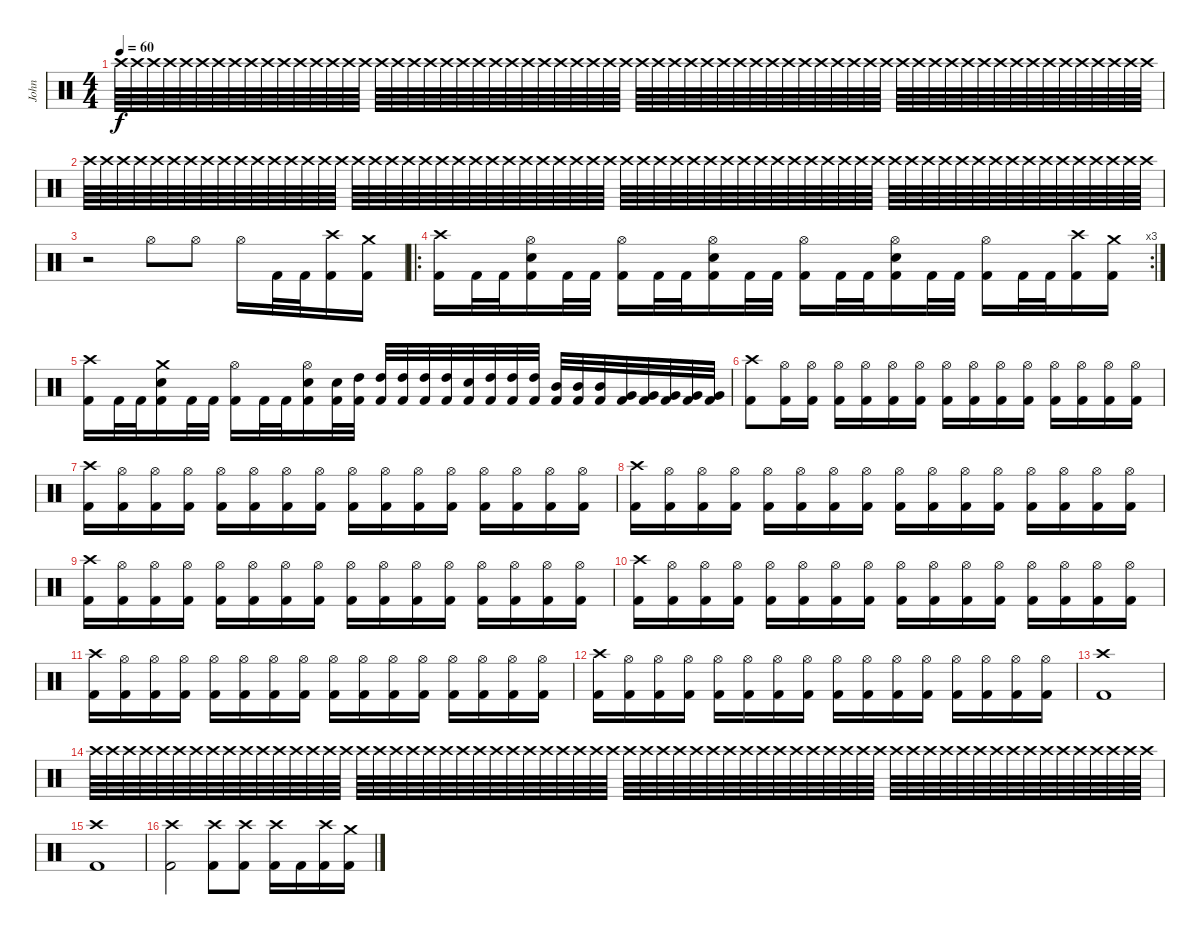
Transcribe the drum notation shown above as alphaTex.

\track ("John" "John") {instrument percussion}
\staff {score}
\articulation defaults
\ts (4 4)
\tempo 60
\clef neutral
\ks c "Crash high (hit)".64{dy f volume 0} "Crash high (hit)".64{volume 16} "Crash high (hit)".64 "Crash high (hit)".64 "Crash high (hit)".64 "Crash high (hit)".64 "Crash high (hit)".64 "Crash high (hit)".64 "Crash high (hit)".64 "Crash high (hit)".64 "Crash high (hit)".64 "Crash high (hit)".64 "Crash high (hit)".64 "Crash high (hit)".64 "Crash high (hit)".64 "Crash high (hit)".64 "Crash high (hit)".64 "Crash high (hit)".64 "Crash high (hit)".64 "Crash high (hit)".64 "Crash high (hit)".64 "Crash high (hit)".64 "Crash high (hit)".64 "Crash high (hit)".64 "Crash high (hit)".64 "Crash high (hit)".64 "Crash high (hit)".64 "Crash high (hit)".64 "Crash high (hit)".64 "Crash high (hit)".64 "Crash high (hit)".64 "Crash high (hit)".64 "Crash high (hit)".64 "Crash high (hit)".64 "Crash high (hit)".64 "Crash high (hit)".64 "Crash high (hit)".64 "Crash high (hit)".64 "Crash high (hit)".64 "Crash high (hit)".64 "Crash high (hit)".64 "Crash high (hit)".64 "Crash high (hit)".64 "Crash high (hit)".64 "Crash high (hit)".64 "Crash high (hit)".64 "Crash high (hit)".64 "Crash high (hit)".64 "Crash high (hit)".64 "Crash high (hit)".64 "Crash high (hit)".64 "Crash high (hit)".64 "Crash high (hit)".64 "Crash high (hit)".64 "Crash high (hit)".64 "Crash high (hit)".64 "Crash high (hit)".64 "Crash high (hit)".64 "Crash high (hit)".64 "Crash high (hit)".64 "Crash high (hit)".64 "Crash high (hit)".64 "Crash high (hit)".64 "Crash high (hit)".64
|
"Crash high (hit)".64 "Crash high (hit)".64 "Crash high (hit)".64 "Crash high (hit)".64 "Crash high (hit)".64 "Crash high (hit)".64 "Crash high (hit)".64 "Crash high (hit)".64 "Crash high (hit)".64 "Crash high (hit)".64 "Crash high (hit)".64 "Crash high (hit)".64 "Crash high (hit)".64 "Crash high (hit)".64 "Crash high (hit)".64 "Crash high (hit)".64 "Crash high (hit)".64 "Crash high (hit)".64 "Crash high (hit)".64 "Crash high (hit)".64 "Crash high (hit)".64 "Crash high (hit)".64 "Crash high (hit)".64 "Crash high (hit)".64 "Crash high (hit)".64 "Crash high (hit)".64 "Crash high (hit)".64 "Crash high (hit)".64 "Crash high (hit)".64 "Crash high (hit)".64 "Crash high (hit)".64 "Crash high (hit)".64 "Crash high (hit)".64 "Crash high (hit)".64 "Crash high (hit)".64 "Crash high (hit)".64 "Crash high (hit)".64 "Crash high (hit)".64 "Crash high (hit)".64 "Crash high (hit)".64 "Crash high (hit)".64 "Crash high (hit)".64 "Crash high (hit)".64 "Crash high (hit)".64 "Crash high (hit)".64 "Crash high (hit)".64 "Crash high (hit)".64 "Crash high (hit)".64 "Crash high (hit)".64 "Crash high (hit)".64 "Crash high (hit)".64 "Crash high (hit)".64 "Crash high (hit)".64 "Crash high (hit)".64 "Crash high (hit)".64 "Crash high (hit)".64 "Crash high (hit)".64 "Crash high (hit)".64 "Crash high (hit)".64 "Crash high (hit)".64 "Crash high (hit)".64 "Crash high (hit)".64 "Crash high (hit)".64 "Crash high (hit)".64 |
r.2 "Hi-Hat (open)".8 "Hi-Hat (open)".8 "Hi-Hat (open)".16 "Kick (hit) 2".32 "Kick (hit) 2".32 ("Crash high (hit)" "Kick (hit) 2").16 ("Crash medium (hit)" "Kick (hit) 2").16 |
\ro
\rc 3
("Crash high (hit)" "Kick (hit) 2").16 "Kick (hit) 2".32 "Kick (hit) 2".32 ("Hi-Hat (open)" "Snare (hit) 2" "Kick (hit) 2").16 "Kick (hit) 2".32 "Kick (hit) 2".32 ("Hi-Hat (open)" "Kick (hit) 2").16 "Kick (hit) 2".32 "Kick (hit) 2".32 ("Hi-Hat (open)" "Snare (hit) 2" "Kick (hit) 2").16 "Kick (hit) 2".32 "Kick (hit) 2".32 ("Hi-Hat (open)" "Kick (hit) 2").16 "Kick (hit) 2".32 "Kick (hit) 2".32 ("Hi-Hat (open)" "Snare (hit) 2" "Kick (hit) 2").16 "Kick (hit) 2".32 "Kick (hit) 2".32 ("Hi-Hat (open)" "Kick (hit) 2").16 "Kick (hit) 2".32 "Kick (hit) 2".32 ("Crash high (hit)" "Kick (hit) 2").16 ("Crash medium (hit)" "Kick (hit) 2").16 |
("Crash high (hit)" "Kick (hit) 2").16 "Kick (hit) 2".32 "Kick (hit) 2".32 ("Crash medium (hit)" "Snare (hit) 2" "Kick (hit) 2").16 "Kick (hit) 2".32 "Kick (hit) 2".32 ("Hi-Hat (open)" "Kick (hit) 2").16 "Kick (hit) 2".32 "Kick (hit) 2".32 ("Hi-Hat (open)" "Snare (hit) 2" "Kick (hit) 2").16 ("Snare (hit) 2" "Kick (hit) 2").32 ("High Tom (hit)" "Kick (hit) 2").32 ("High Tom (hit)" "Kick (hit) 2").32 ("High Tom (hit)" "Kick (hit) 2").32 ("High Tom (hit)" "Kick (hit) 2").32 ("High Tom (hit)" "Kick (hit) 2").32 ("Snare (hit) 2" "Kick (hit) 2").32 ("High Tom (hit)" "Kick (hit) 2").32 ("High Tom (hit)" "Kick (hit) 2").32 ("High Tom (hit)" "Kick (hit) 2").32 ("Mid Tom (hit)" "Kick (hit) 2").32 ("Mid Tom (hit)" "Kick (hit) 2").32 ("Mid Tom (hit)" "Kick (hit) 2").32 ("Very Low Tom (hit)" "Kick (hit) 2").32 ("Very Low Tom (hit)" "Kick (hit) 2").32 ("Very Low Tom (hit)" "Kick (hit) 2").32 ("Very Low Tom (hit)" "Kick (hit) 2").32 ("Very Low Tom (hit)" "Kick (hit) 2").32 |
("Crash high (hit)" "Kick (hit) 2").8 ("Hi-Hat (open)" "Kick (hit) 2").16 ("Hi-Hat (open)" "Kick (hit) 2").16 ("Hi-Hat (open)" "Kick (hit) 2").16 ("Hi-Hat (open)" "Kick (hit) 2").16 ("Hi-Hat (open)" "Kick (hit) 2").16 ("Hi-Hat (open)" "Kick (hit) 2").16 ("Hi-Hat (open)" "Kick (hit) 2").16 ("Hi-Hat (open)" "Kick (hit) 2").16 ("Hi-Hat (open)" "Kick (hit) 2").16 ("Hi-Hat (open)" "Kick (hit) 2").16 ("Hi-Hat (open)" "Kick (hit) 2").16 ("Hi-Hat (open)" "Kick (hit) 2").16 ("Hi-Hat (open)" "Kick (hit) 2").16 ("Hi-Hat (open)" "Kick (hit) 2").16 |
("Crash high (hit)" "Kick (hit) 2").16 ("Hi-Hat (open)" "Kick (hit) 2").16 ("Hi-Hat (open)" "Kick (hit) 2").16 ("Hi-Hat (open)" "Kick (hit) 2").16 ("Hi-Hat (open)" "Kick (hit) 2").16 ("Hi-Hat (open)" "Kick (hit) 2").16 ("Hi-Hat (open)" "Kick (hit) 2").16 ("Hi-Hat (open)" "Kick (hit) 2").16 ("Hi-Hat (open)" "Kick (hit) 2").16 ("Hi-Hat (open)" "Kick (hit) 2").16 ("Hi-Hat (open)" "Kick (hit) 2").16 ("Hi-Hat (open)" "Kick (hit) 2").16 ("Hi-Hat (open)" "Kick (hit) 2").16 ("Hi-Hat (open)" "Kick (hit) 2").16 ("Hi-Hat (open)" "Kick (hit) 2").16 ("Hi-Hat (open)" "Kick (hit) 2").16 |
("Crash high (hit)" "Kick (hit) 2").16 ("Hi-Hat (open)" "Kick (hit) 2").16 ("Hi-Hat (open)" "Kick (hit) 2").16 ("Hi-Hat (open)" "Kick (hit) 2").16 ("Hi-Hat (open)" "Kick (hit) 2").16 ("Hi-Hat (open)" "Kick (hit) 2").16 ("Hi-Hat (open)" "Kick (hit) 2").16 ("Hi-Hat (open)" "Kick (hit) 2").16 ("Hi-Hat (open)" "Kick (hit) 2").16 ("Hi-Hat (open)" "Kick (hit) 2").16 ("Hi-Hat (open)" "Kick (hit) 2").16 ("Hi-Hat (open)" "Kick (hit) 2").16 ("Hi-Hat (open)" "Kick (hit) 2").16 ("Hi-Hat (open)" "Kick (hit) 2").16 ("Hi-Hat (open)" "Kick (hit) 2").16 ("Hi-Hat (open)" "Kick (hit) 2").16 |
("Crash high (hit)" "Kick (hit) 2").16 ("Hi-Hat (open)" "Kick (hit) 2").16 ("Hi-Hat (open)" "Kick (hit) 2").16 ("Hi-Hat (open)" "Kick (hit) 2").16 ("Hi-Hat (open)" "Kick (hit) 2").16 ("Hi-Hat (open)" "Kick (hit) 2").16 ("Hi-Hat (open)" "Kick (hit) 2").16 ("Hi-Hat (open)" "Kick (hit) 2").16 ("Hi-Hat (open)" "Kick (hit) 2").16 ("Hi-Hat (open)" "Kick (hit) 2").16 ("Hi-Hat (open)" "Kick (hit) 2").16 ("Hi-Hat (open)" "Kick (hit) 2").16 ("Hi-Hat (open)" "Kick (hit) 2").16 ("Hi-Hat (open)" "Kick (hit) 2").16 ("Hi-Hat (open)" "Kick (hit) 2").16 ("Hi-Hat (open)" "Kick (hit) 2").16 |
("Crash high (hit)" "Kick (hit) 2").16 ("Hi-Hat (open)" "Kick (hit) 2").16 ("Hi-Hat (open)" "Kick (hit) 2").16 ("Hi-Hat (open)" "Kick (hit) 2").16 ("Hi-Hat (open)" "Kick (hit) 2").16 ("Hi-Hat (open)" "Kick (hit) 2").16 ("Hi-Hat (open)" "Kick (hit) 2").16 ("Hi-Hat (open)" "Kick (hit) 2").16 ("Hi-Hat (open)" "Kick (hit) 2").16 ("Hi-Hat (open)" "Kick (hit) 2").16 ("Hi-Hat (open)" "Kick (hit) 2").16 ("Hi-Hat (open)" "Kick (hit) 2").16 ("Hi-Hat (open)" "Kick (hit) 2").16 ("Hi-Hat (open)" "Kick (hit) 2").16 ("Hi-Hat (open)" "Kick (hit) 2").16 ("Hi-Hat (open)" "Kick (hit) 2").16 |
("Crash high (hit)" "Kick (hit) 2").16 ("Hi-Hat (open)" "Kick (hit) 2").16 ("Hi-Hat (open)" "Kick (hit) 2").16 ("Hi-Hat (open)" "Kick (hit) 2").16 ("Hi-Hat (open)" "Kick (hit) 2").16 ("Hi-Hat (open)" "Kick (hit) 2").16 ("Hi-Hat (open)" "Kick (hit) 2").16 ("Hi-Hat (open)" "Kick (hit) 2").16 ("Hi-Hat (open)" "Kick (hit) 2").16 ("Hi-Hat (open)" "Kick (hit) 2").16 ("Hi-Hat (open)" "Kick (hit) 2").16 ("Hi-Hat (open)" "Kick (hit) 2").16 ("Hi-Hat (open)" "Kick (hit) 2").16 ("Hi-Hat (open)" "Kick (hit) 2").16 ("Hi-Hat (open)" "Kick (hit) 2").16 ("Hi-Hat (open)" "Kick (hit) 2").16 |
("Crash high (hit)" "Kick (hit) 2").16 ("Hi-Hat (open)" "Kick (hit) 2").16 ("Hi-Hat (open)" "Kick (hit) 2").16 ("Hi-Hat (open)" "Kick (hit) 2").16 ("Hi-Hat (open)" "Kick (hit) 2").16 ("Hi-Hat (open)" "Kick (hit) 2").16 ("Hi-Hat (open)" "Kick (hit) 2").16 ("Hi-Hat (open)" "Kick (hit) 2").16 ("Hi-Hat (open)" "Kick (hit) 2").16 ("Hi-Hat (open)" "Kick (hit) 2").16 ("Hi-Hat (open)" "Kick (hit) 2").16 ("Hi-Hat (open)" "Kick (hit) 2").16 ("Hi-Hat (open)" "Kick (hit) 2").16 ("Hi-Hat (open)" "Kick (hit) 2").16 ("Hi-Hat (open)" "Kick (hit) 2").16 ("Hi-Hat (open)" "Kick (hit) 2").16 |
("Crash high (hit)" "Kick (hit) 2").1 |
"Crash high (hit)".64{volume 0} "Crash high (hit)".64 "Crash high (hit)".64 "Crash high (hit)".64 "Crash high (hit)".64 "Crash high (hit)".64 "Crash high (hit)".64 "Crash high (hit)".64 "Crash high (hit)".64 "Crash high (hit)".64 "Crash high (hit)".64 "Crash high (hit)".64 "Crash high (hit)".64 "Crash high (hit)".64 "Crash high (hit)".64 "Crash high (hit)".64 "Crash high (hit)".64{volume 16} "Crash high (hit)".64 "Crash high (hit)".64 "Crash high (hit)".64 "Crash high (hit)".64 "Crash high (hit)".64 "Crash high (hit)".64 "Crash high (hit)".64 "Crash high (hit)".64 "Crash high (hit)".64 "Crash high (hit)".64 "Crash high (hit)".64 "Crash high (hit)".64 "Crash high (hit)".64 "Crash high (hit)".64 "Crash high (hit)".64 "Crash high (hit)".64 "Crash high (hit)".64 "Crash high (hit)".64 "Crash high (hit)".64 "Crash high (hit)".64 "Crash high (hit)".64 "Crash high (hit)".64 "Crash high (hit)".64 "Crash high (hit)".64 "Crash high (hit)".64 "Crash high (hit)".64 "Crash high (hit)".64 "Crash high (hit)".64 "Crash high (hit)".64 "Crash high (hit)".64 "Crash high (hit)".64 "Crash high (hit)".64 "Crash high (hit)".64 "Crash high (hit)".64 "Crash high (hit)".64 "Crash high (hit)".64 "Crash high (hit)".64 "Crash high (hit)".64 "Crash high (hit)".64 "Crash high (hit)".64 "Crash high (hit)".64 "Crash high (hit)".64 "Crash high (hit)".64 "Crash high (hit)".64 "Crash high (hit)".64 "Crash high (hit)".64 "Crash high (hit)".64 |
("Crash high (hit)" "Kick (hit) 2").1 |
("Crash high (hit)" "Kick (hit) 2").2 ("Crash high (hit)" "Kick (hit) 2").8 ("Crash high (hit)" "Kick (hit) 2").8 ("Crash high (hit)" "Kick (hit) 2").16 "Kick (hit) 2".16 ("Crash high (hit)" "Kick (hit) 2").16 ("Crash medium (hit)" "Kick (hit) 2").16
